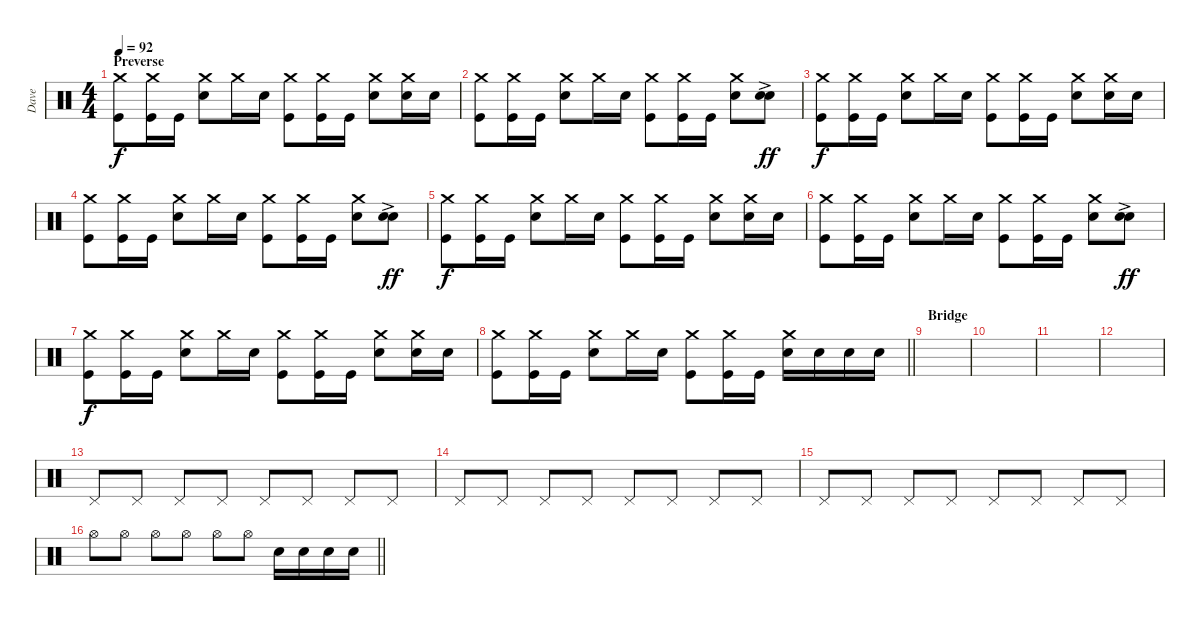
\track ("Dave" "Dave") {instrument percussion}
\staff {score}
\articulation defaults
\ts (4 4)
\section ("" "Preverse")
\tempo 92
\clef neutral
\ks c
("Crash medium (hit)" "Kick (hit)").8{dy f} ("Crash medium (hit)" "Kick (hit)").16 "Kick (hit)".16 ("Crash medium (hit)" "Electric Snare (hit)").8 "Crash medium (hit)".16 "Electric Snare (hit)".16 ("Crash medium (hit)" "Kick (hit)").8 ("Crash medium (hit)" "Kick (hit)").16 "Kick (hit)".16 ("Crash medium (hit)" "Electric Snare (hit)").8 ("Crash medium (hit)" "Electric Snare (hit)").16 "Electric Snare (hit)".16 |
("Crash medium (hit)" "Kick (hit)").8 ("Crash medium (hit)" "Kick (hit)").16 "Kick (hit)".16 ("Crash medium (hit)" "Electric Snare (hit)").8 "Crash medium (hit)".16 "Electric Snare (hit)".16 ("Crash medium (hit)" "Kick (hit)").8 ("Crash medium (hit)" "Kick (hit)").16 "Kick (hit)".16 ("Crash medium (hit)" "Electric Snare (hit)").8 ("Electric Snare (hit)"{ac} "Electric Snare (hit)"{ac}).8{dy ff} |
("Crash medium (hit)" "Kick (hit)").8{dy f} ("Crash medium (hit)" "Kick (hit)").16 "Kick (hit)".16 ("Crash medium (hit)" "Electric Snare (hit)").8 "Crash medium (hit)".16 "Electric Snare (hit)".16 ("Crash medium (hit)" "Kick (hit)").8 ("Crash medium (hit)" "Kick (hit)").16 "Kick (hit)".16 ("Crash medium (hit)" "Electric Snare (hit)").8 ("Crash medium (hit)" "Electric Snare (hit)").16 "Electric Snare (hit)".16 |
("Crash medium (hit)" "Kick (hit)").8 ("Crash medium (hit)" "Kick (hit)").16 "Kick (hit)".16 ("Crash medium (hit)" "Electric Snare (hit)").8 "Crash medium (hit)".16 "Electric Snare (hit)".16 ("Crash medium (hit)" "Kick (hit)").8 ("Crash medium (hit)" "Kick (hit)").16 "Kick (hit)".16 ("Crash medium (hit)" "Electric Snare (hit)").8 ("Electric Snare (hit)"{ac} "Electric Snare (hit)"{ac}).8{dy ff} |
("Crash medium (hit)" "Kick (hit)").8{dy f} ("Crash medium (hit)" "Kick (hit)").16 "Kick (hit)".16 ("Crash medium (hit)" "Electric Snare (hit)").8 "Crash medium (hit)".16 "Electric Snare (hit)".16 ("Crash medium (hit)" "Kick (hit)").8 ("Crash medium (hit)" "Kick (hit)").16 "Kick (hit)".16 ("Crash medium (hit)" "Electric Snare (hit)").8 ("Crash medium (hit)" "Electric Snare (hit)").16 "Electric Snare (hit)".16 |
("Crash medium (hit)" "Kick (hit)").8 ("Crash medium (hit)" "Kick (hit)").16 "Kick (hit)".16 ("Crash medium (hit)" "Electric Snare (hit)").8 "Crash medium (hit)".16 "Electric Snare (hit)".16 ("Crash medium (hit)" "Kick (hit)").8 ("Crash medium (hit)" "Kick (hit)").16 "Kick (hit)".16 ("Crash medium (hit)" "Electric Snare (hit)").8 ("Electric Snare (hit)"{ac} "Electric Snare (hit)"{ac}).8{dy ff} |
("Crash medium (hit)" "Kick (hit)").8{dy f} ("Crash medium (hit)" "Kick (hit)").16 "Kick (hit)".16 ("Crash medium (hit)" "Electric Snare (hit)").8 "Crash medium (hit)".16 "Electric Snare (hit)".16 ("Crash medium (hit)" "Kick (hit)").8 ("Crash medium (hit)" "Kick (hit)").16 "Kick (hit)".16 ("Crash medium (hit)" "Electric Snare (hit)").8 ("Crash medium (hit)" "Electric Snare (hit)").16 "Electric Snare (hit)".16 |
\barLineRight lightlight
("Crash medium (hit)" "Kick (hit)").8 ("Crash medium (hit)" "Kick (hit)").16 "Kick (hit)".16 ("Crash medium (hit)" "Electric Snare (hit)").8 "Crash medium (hit)".16 "Electric Snare (hit)".16 ("Crash medium (hit)" "Kick (hit)").8 ("Crash medium (hit)" "Kick (hit)").16 "Kick (hit)".16 ("Crash medium (hit)" "Electric Snare (hit)").16 "Electric Snare (hit)".16 "Electric Snare (hit)".16 "Electric Snare (hit)".16 |
\section ("" "Bridge")
|
|
|
|
"Pedal Hi-Hat (hit)".8 "Pedal Hi-Hat (hit)".8 "Pedal Hi-Hat (hit)".8 "Pedal Hi-Hat (hit)".8 "Pedal Hi-Hat (hit)".8 "Pedal Hi-Hat (hit)".8 "Pedal Hi-Hat (hit)".8 "Pedal Hi-Hat (hit)".8 |
"Pedal Hi-Hat (hit)".8 "Pedal Hi-Hat (hit)".8 "Pedal Hi-Hat (hit)".8 "Pedal Hi-Hat (hit)".8 "Pedal Hi-Hat (hit)".8 "Pedal Hi-Hat (hit)".8 "Pedal Hi-Hat (hit)".8 "Pedal Hi-Hat (hit)".8 |
"Pedal Hi-Hat (hit)".8 "Pedal Hi-Hat (hit)".8 "Pedal Hi-Hat (hit)".8 "Pedal Hi-Hat (hit)".8 "Pedal Hi-Hat (hit)".8 "Pedal Hi-Hat (hit)".8 "Pedal Hi-Hat (hit)".8 "Pedal Hi-Hat (hit)".8 |
\barLineRight lightlight "Hi-Hat (open)".8 "Hi-Hat (open)".8 "Hi-Hat (open)".8 "Hi-Hat (open)".8 "Hi-Hat (open)".8 "Hi-Hat (open)".8 "Electric Snare (hit)".16 "Electric Snare (hit)".16 "Electric Snare (hit)".16 "Electric Snare (hit)".16
